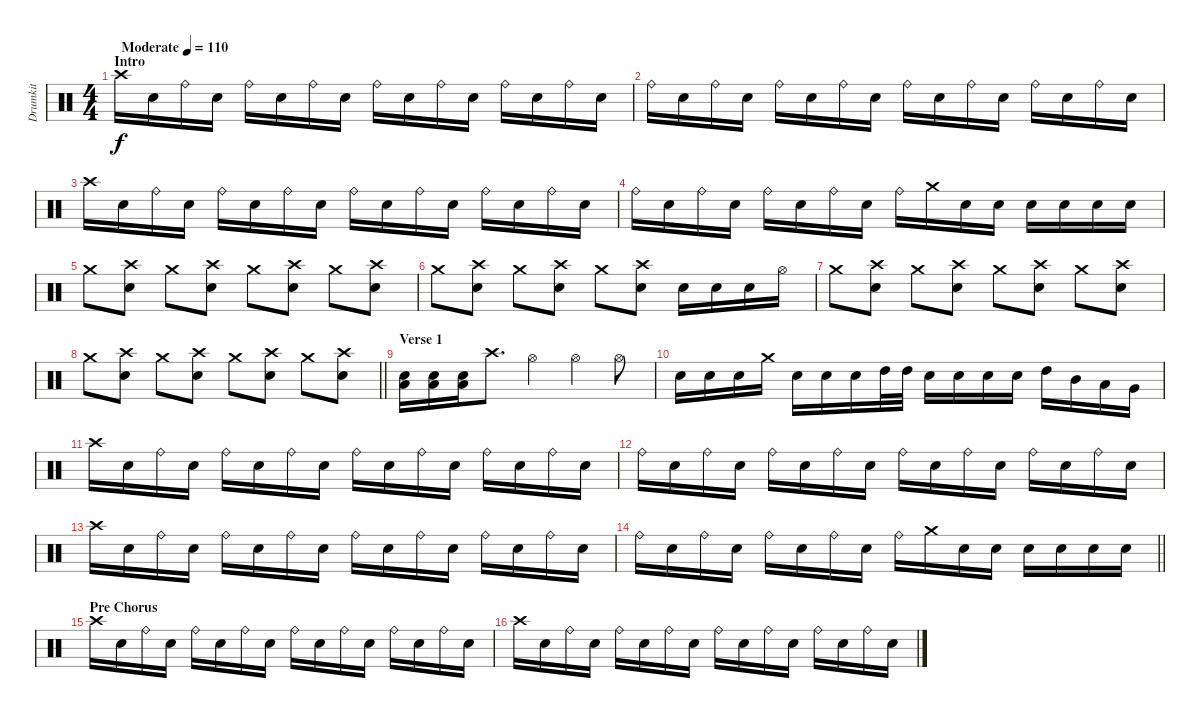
\track ("Drumkit" "Drumkit") {instrument percussion}
\staff {score}
\articulation defaults
\ts (4 4)
\section ("" "Intro")
\tempo (110 "Moderate")
\clef neutral
\ks c "Crash high (hit)".16{dy f} "Electric Snare (hit)".16 "Ride (bell)".16 "Electric Snare (hit)".16 "Ride (bell)".16 "Electric Snare (hit)".16 "Ride (bell)".16 "Electric Snare (hit)".16 "Ride (bell)".16 "Electric Snare (hit)".16 "Ride (bell)".16 "Electric Snare (hit)".16 "Ride (bell)".16 "Electric Snare (hit)".16 "Ride (bell)".16 "Electric Snare (hit)".16
|
"Ride (bell)".16 "Electric Snare (hit)".16 "Ride (bell)".16 "Electric Snare (hit)".16 "Ride (bell)".16 "Electric Snare (hit)".16 "Ride (bell)".16 "Electric Snare (hit)".16 "Ride (bell)".16 "Electric Snare (hit)".16 "Ride (bell)".16 "Electric Snare (hit)".16 "Ride (bell)".16 "Electric Snare (hit)".16 "Ride (bell)".16 "Electric Snare (hit)".16 |
"Crash high (hit)".16 "Electric Snare (hit)".16 "Ride (bell)".16 "Electric Snare (hit)".16 "Ride (bell)".16 "Electric Snare (hit)".16 "Ride (bell)".16 "Electric Snare (hit)".16 "Ride (bell)".16 "Electric Snare (hit)".16 "Ride (bell)".16 "Electric Snare (hit)".16 "Ride (bell)".16 "Electric Snare (hit)".16 "Ride (bell)".16 "Electric Snare (hit)".16 |
"Ride (bell)".16 "Electric Snare (hit)".16 "Ride (bell)".16 "Electric Snare (hit)".16 "Ride (bell)".16 "Electric Snare (hit)".16 "Ride (bell)".16 "Electric Snare (hit)".16 "Ride (bell)".16 "Crash medium (hit)".16 "Electric Snare (hit)".16 "Electric Snare (hit)".16 "Electric Snare (hit)".16 "Electric Snare (hit)".16 "Electric Snare (hit)".16 "Electric Snare (hit)".16 |
"Crash medium (hit)".8 ("Crash high (hit)" "Electric Snare (hit)").8 "Crash medium (hit)".8 ("Crash high (hit)" "Electric Snare (hit)").8 "Crash medium (hit)".8 ("Crash high (hit)" "Electric Snare (hit)").8 "Crash medium (hit)".8 ("Crash high (hit)" "Electric Snare (hit)").8 |
"Crash medium (hit)".8 ("Crash high (hit)" "Electric Snare (hit)").8 "Crash medium (hit)".8 ("Crash high (hit)" "Electric Snare (hit)").8 "Crash medium (hit)".8 ("Crash high (hit)" "Electric Snare (hit)").8 "Electric Snare (hit)".16 "Electric Snare (hit)".16 "Electric Snare (hit)".16 "Hi-Hat (open)".16 |
"Crash medium (hit)".8 ("Crash high (hit)" "Electric Snare (hit)").8 "Crash medium (hit)".8 ("Crash high (hit)" "Electric Snare (hit)").8 "Crash medium (hit)".8 ("Crash high (hit)" "Electric Snare (hit)").8 "Crash medium (hit)".8 ("Crash high (hit)" "Electric Snare (hit)").8 |
\barLineRight lightlight "Crash medium (hit)".8
("Crash high (hit)" "Electric Snare (hit)").8 "Crash medium (hit)".8 ("Crash high (hit)" "Electric Snare (hit)").8 "Crash medium (hit)".8 ("Crash high (hit)" "Electric Snare (hit)").8 "Crash medium (hit)".8 ("Crash high (hit)" "Electric Snare (hit)").8 |
\section ("" "Verse 1")
("Low Floor Tom (hit)" "Electric Snare (hit)").16 ("Low Floor Tom (hit)" "Electric Snare (hit)").16 ("Low Floor Tom (hit)" "Electric Snare (hit)").16 "Crash high (hit)".8{d} "Hi-Hat (open)".4 "Hi-Hat (open)".4 "Hi-Hat (open)".8 |
"Electric Snare (hit)".16 "Electric Snare (hit)".16 "Electric Snare (hit)".16 "Crash medium (hit)".16 "Electric Snare (hit)".16 "Electric Snare (hit)".16 "Electric Snare (hit)".16 "High Tom (hit)".32 "High Tom (hit)".32 "Electric Snare (hit)".16 "Electric Snare (hit)".16 "Electric Snare (hit)".16 "Electric Snare (hit)".16 "High Tom (hit)".16 "Mid Tom (hit)".16 "Low Tom (hit)".16 "Very Low Tom (hit)".16 |
"Crash high (hit)".16 "Electric Snare (hit)".16 "Ride (bell)".16 "Electric Snare (hit)".16 "Ride (bell)".16 "Electric Snare (hit)".16 "Ride (bell)".16 "Electric Snare (hit)".16 "Ride (bell)".16 "Electric Snare (hit)".16 "Ride (bell)".16 "Electric Snare (hit)".16 "Ride (bell)".16 "Electric Snare (hit)".16 "Ride (bell)".16 "Electric Snare (hit)".16 |
"Ride (bell)".16 "Electric Snare (hit)".16 "Ride (bell)".16 "Electric Snare (hit)".16 "Ride (bell)".16 "Electric Snare (hit)".16 "Ride (bell)".16 "Electric Snare (hit)".16 "Ride (bell)".16 "Electric Snare (hit)".16 "Ride (bell)".16 "Electric Snare (hit)".16 "Ride (bell)".16 "Electric Snare (hit)".16 "Ride (bell)".16 "Electric Snare (hit)".16 |
"Crash high (hit)".16 "Electric Snare (hit)".16 "Ride (bell)".16 "Electric Snare (hit)".16 "Ride (bell)".16 "Electric Snare (hit)".16 "Ride (bell)".16 "Electric Snare (hit)".16 "Ride (bell)".16 "Electric Snare (hit)".16 "Ride (bell)".16 "Electric Snare (hit)".16 "Ride (bell)".16 "Electric Snare (hit)".16 "Ride (bell)".16 "Electric Snare (hit)".16 |
\barLineRight lightlight "Ride (bell)".16 "Electric Snare (hit)".16 "Ride (bell)".16 "Electric Snare (hit)".16 "Ride (bell)".16 "Electric Snare (hit)".16 "Ride (bell)".16 "Electric Snare (hit)".16 "Ride (bell)".16 "Crash medium (hit)".16 "Electric Snare (hit)".16 "Electric Snare (hit)".16 "Electric Snare (hit)".16 "Electric Snare (hit)".16 "Electric Snare (hit)".16 "Electric Snare (hit)".16
|
\section ("" "Pre Chorus")
"Crash high (hit)".16 "Electric Snare (hit)".16 "Ride (bell)".16 "Electric Snare (hit)".16 "Ride (bell)".16 "Electric Snare (hit)".16 "Ride (bell)".16 "Electric Snare (hit)".16 "Ride (bell)".16 "Electric Snare (hit)".16 "Ride (bell)".16 "Electric Snare (hit)".16 "Ride (bell)".16 "Electric Snare (hit)".16 "Ride (bell)".16 "Electric Snare (hit)".16 |
"Crash high (hit)".16 "Electric Snare (hit)".16 "Ride (bell)".16 "Electric Snare (hit)".16 "Ride (bell)".16 "Electric Snare (hit)".16 "Ride (bell)".16 "Electric Snare (hit)".16 "Ride (bell)".16 "Electric Snare (hit)".16 "Ride (bell)".16 "Electric Snare (hit)".16 "Ride (bell)".16 "Electric Snare (hit)".16 "Ride (bell)".16 "Electric Snare (hit)".16
